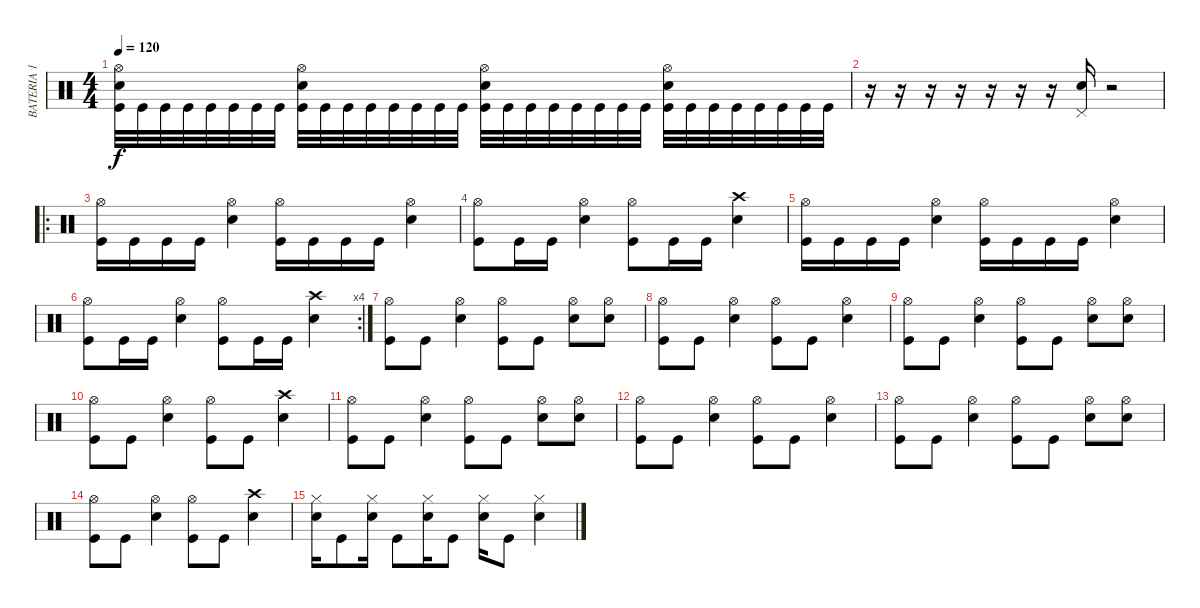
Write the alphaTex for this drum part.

\track ("BATERIA 1" "BATERIA 1") {instrument percussion}
\staff {score}
\articulation defaults
\ts (4 4)
\tempo 120
\clef neutral
\ks c
("Kick (hit)" "Snare (hit) 2" "Hi-Hat (open)").32{dy f} "Kick (hit)".32 "Kick (hit)".32 "Kick (hit)".32 "Kick (hit)".32 "Kick (hit)".32 "Kick (hit)".32 "Kick (hit)".32 ("Kick (hit)" "Snare (hit) 2" "Hi-Hat (open)").32 "Kick (hit)".32 "Kick (hit)".32 "Kick (hit)".32 "Kick (hit)".32 "Kick (hit)".32 "Kick (hit)".32 "Kick (hit)".32 ("Kick (hit)" "Snare (hit) 2" "Hi-Hat (open)").32 "Kick (hit)".32 "Kick (hit)".32 "Kick (hit)".32 "Kick (hit)".32 "Kick (hit)".32 "Kick (hit)".32 "Kick (hit)".32 ("Kick (hit)" "Snare (hit) 2" "Hi-Hat (open)").32 "Kick (hit)".32 "Kick (hit)".32 "Kick (hit)".32 "Kick (hit)".32 "Kick (hit)".32 "Kick (hit)".32 "Kick (hit)".32 |
r.16 r.16 r.16 r.16 r.16 r.16 r.16 ("Pedal Hi-Hat (hit)" "Snare (hit) 2").16 r.2 |
\ro
("Hi-Hat (open)" "Kick (hit)").16 "Kick (hit)".16 "Kick (hit)".16 "Kick (hit)".16 ("Hi-Hat (open)" "Snare (hit) 2").4 ("Hi-Hat (open)" "Kick (hit)").16 "Kick (hit)".16 "Kick (hit)".16 "Kick (hit)".16 ("Hi-Hat (open)" "Snare (hit) 2").4 |
("Hi-Hat (open)" "Kick (hit)").8 "Kick (hit)".16 "Kick (hit)".16 ("Hi-Hat (open)" "Snare (hit) 2").4 ("Hi-Hat (open)" "Kick (hit)").8 "Kick (hit)".16 "Kick (hit)".16 ("Crash high (hit)" "Snare (hit) 2").4 |
("Hi-Hat (open)" "Kick (hit)").16 "Kick (hit)".16 "Kick (hit)".16 "Kick (hit)".16 ("Hi-Hat (open)" "Snare (hit) 2").4 ("Hi-Hat (open)" "Kick (hit)").16 "Kick (hit)".16 "Kick (hit)".16 "Kick (hit)".16 ("Hi-Hat (open)" "Snare (hit) 2").4 |
\rc 4
("Hi-Hat (open)" "Kick (hit)").8 "Kick (hit)".16 "Kick (hit)".16 ("Hi-Hat (open)" "Snare (hit) 2").4 ("Hi-Hat (open)" "Kick (hit)").8 "Kick (hit)".16 "Kick (hit)".16 ("Crash high (hit)" "Snare (hit) 2").4 |
("Hi-Hat (open)" "Kick (hit)").8 "Kick (hit)".8 ("Hi-Hat (open)" "Snare (hit) 2").4 ("Hi-Hat (open)" "Kick (hit)").8 "Kick (hit)".8 ("Hi-Hat (open)" "Snare (hit) 2").8 ("Hi-Hat (open)" "Snare (hit) 2").8 |
("Hi-Hat (open)" "Kick (hit)").8 "Kick (hit)".8 ("Hi-Hat (open)" "Snare (hit) 2").4 ("Hi-Hat (open)" "Kick (hit)").8 "Kick (hit)".8 ("Hi-Hat (open)" "Snare (hit) 2").4 |
("Hi-Hat (open)" "Kick (hit)").8 "Kick (hit)".8 ("Hi-Hat (open)" "Snare (hit) 2").4 ("Hi-Hat (open)" "Kick (hit)").8 "Kick (hit)".8 ("Hi-Hat (open)" "Snare (hit) 2").8 ("Hi-Hat (open)" "Snare (hit) 2").8 |
("Hi-Hat (open)" "Kick (hit)").8 "Kick (hit)".8 ("Hi-Hat (open)" "Snare (hit) 2").4 ("Hi-Hat (open)" "Kick (hit)").8 "Kick (hit)".8 ("Crash high (hit)" "Snare (hit) 2").4 |
("Hi-Hat (open)" "Kick (hit)").8 "Kick (hit)".8 ("Hi-Hat (open)" "Snare (hit) 2").4 ("Hi-Hat (open)" "Kick (hit)").8 "Kick (hit)".8 ("Hi-Hat (open)" "Snare (hit) 2").8 ("Hi-Hat (open)" "Snare (hit) 2").8 |
("Hi-Hat (open)" "Kick (hit)").8 "Kick (hit)".8 ("Hi-Hat (open)" "Snare (hit) 2").4 ("Hi-Hat (open)" "Kick (hit)").8 "Kick (hit)".8 ("Hi-Hat (open)" "Snare (hit) 2").4 |
("Hi-Hat (open)" "Kick (hit)").8 "Kick (hit)".8 ("Hi-Hat (open)" "Snare (hit) 2").4 ("Hi-Hat (open)" "Kick (hit)").8 "Kick (hit)".8 ("Hi-Hat (open)" "Snare (hit) 2").8 ("Hi-Hat (open)" "Snare (hit) 2").8 |
("Hi-Hat (open)" "Kick (hit)").8 "Kick (hit)".8 ("Hi-Hat (open)" "Snare (hit) 2").4 ("Hi-Hat (open)" "Kick (hit)").8 "Kick (hit)".8 ("Crash high (hit)" "Snare (hit) 2").4 |
("Hi-Hat (closed)" "Snare (hit) 2").16 "Kick (hit)".8 ("Hi-Hat (closed)" "Snare (hit) 2").16 "Kick (hit)".8 ("Hi-Hat (closed)" "Snare (hit) 2").16 "Kick (hit)".8 ("Hi-Hat (closed)" "Snare (hit) 2").16 "Kick (hit)".8 ("Hi-Hat (closed)" "Snare (hit) 2").4
